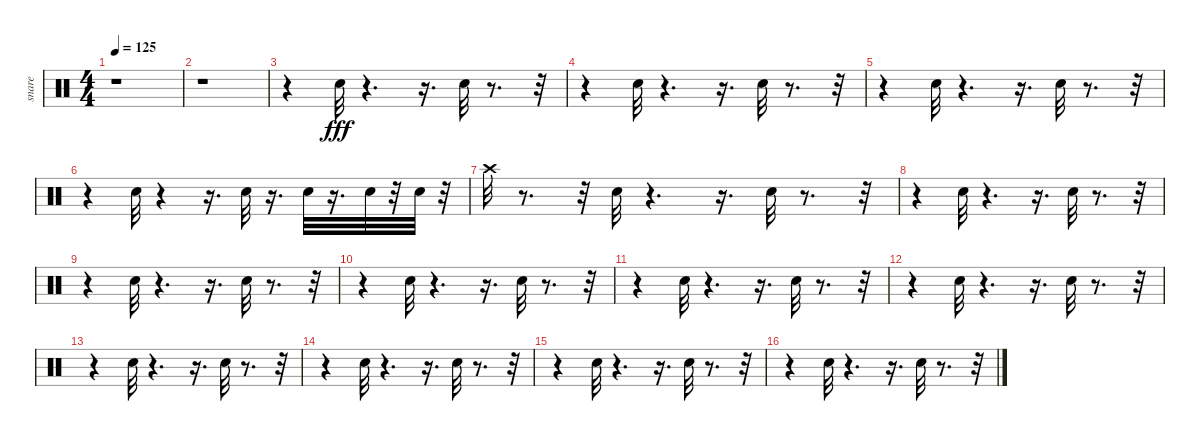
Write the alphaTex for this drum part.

\track ("snare" "snare") {instrument percussion}
\staff {score}
\articulation defaults
\ts (4 4)
\tempo 125
\clef neutral
\ks c
r.1{dy fff} |
r.1 |
r.4 "Electric Snare (hit)".32 r.4{d} r.16{d} "Electric Snare (hit)".32 r.8{d} r.32 |
r.4 "Electric Snare (hit)".32 r.4{d} r.16{d} "Electric Snare (hit)".32 r.8{d} r.32 |
r.4 "Electric Snare (hit)".32 r.4{d} r.16{d} "Electric Snare (hit)".32 r.8{d} r.32 |
r.4 "Electric Snare (hit)".32 r.4 r.16{d} "Electric Snare (hit)".32 r.16{d} "Electric Snare (hit)".32 r.16{d} "Electric Snare (hit)".32 r.32 "Electric Snare (hit)".32 r.32 |
"Crash high (hit)".32 r.8{d} r.32 "Electric Snare (hit)".32 r.4{d} r.16{d} "Electric Snare (hit)".32 r.8{d} r.32 |
r.4 "Electric Snare (hit)".32 r.4{d} r.16{d} "Electric Snare (hit)".32 r.8{d} r.32 |
r.4 "Electric Snare (hit)".32 r.4{d} r.16{d} "Electric Snare (hit)".32 r.8{d} r.32 |
r.4 "Electric Snare (hit)".32 r.4{d} r.16{d} "Electric Snare (hit)".32 r.8{d} r.32 |
r.4 "Electric Snare (hit)".32 r.4{d} r.16{d} "Electric Snare (hit)".32 r.8{d} r.32 |
r.4 "Electric Snare (hit)".32 r.4{d} r.16{d} "Electric Snare (hit)".32 r.8{d} r.32 |
r.4 "Electric Snare (hit)".32 r.4{d} r.16{d} "Electric Snare (hit)".32 r.8{d} r.32 |
r.4 "Electric Snare (hit)".32 r.4{d} r.16{d} "Electric Snare (hit)".32 r.8{d} r.32 |
r.4 "Electric Snare (hit)".32 r.4{d} r.16{d} "Electric Snare (hit)".32 r.8{d} r.32 |
r.4 "Electric Snare (hit)".32 r.4{d} r.16{d} "Electric Snare (hit)".32 r.8{d} r.32
